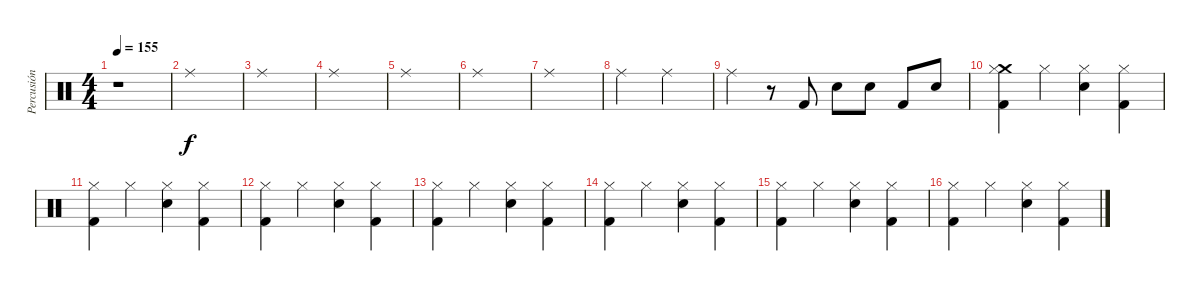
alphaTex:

\track ("Percusión" "Percusión") {instrument percussion}
\staff {score}
\articulation defaults
\ts (4 4)
\tempo 155
\clef neutral
\ks c
r.1{dy f} |
"Ride (middle)".1 |
"Ride (middle)".1 |
"Ride (middle)".1 |
"Ride (middle)".1 |
"Ride (middle)".1 |
"Ride (middle)".1 |
"Ride (middle)".2 "Ride (middle)".2 |
"Ride (middle)".4 r.8 "Kick (hit) 2".8 "Electric Snare (hit)".8 "Electric Snare (hit)".8 "Kick (hit) 2".8 "Electric Snare (hit)".8 |
("Crash medium (hit)" "Hi-Hat (closed)" "Kick (hit) 2").4 "Hi-Hat (closed)".4 ("Hi-Hat (closed)" "Electric Snare (hit)").4 ("Hi-Hat (closed)" "Kick (hit) 2").4 |
("Hi-Hat (closed)" "Kick (hit) 2").4 "Hi-Hat (closed)".4 ("Hi-Hat (closed)" "Electric Snare (hit)").4 ("Hi-Hat (closed)" "Kick (hit) 2").4 |
("Hi-Hat (closed)" "Kick (hit) 2").4 "Hi-Hat (closed)".4 ("Hi-Hat (closed)" "Electric Snare (hit)").4 ("Hi-Hat (closed)" "Kick (hit) 2").4 |
("Hi-Hat (closed)" "Kick (hit) 2").4 "Hi-Hat (closed)".4 ("Hi-Hat (closed)" "Electric Snare (hit)").4 ("Hi-Hat (closed)" "Kick (hit) 2").4 |
("Hi-Hat (closed)" "Kick (hit) 2").4 "Hi-Hat (closed)".4 ("Hi-Hat (closed)" "Electric Snare (hit)").4 ("Hi-Hat (closed)" "Kick (hit) 2").4 |
("Hi-Hat (closed)" "Kick (hit) 2").4 "Hi-Hat (closed)".4 ("Hi-Hat (closed)" "Electric Snare (hit)").4 ("Hi-Hat (closed)" "Kick (hit) 2").4 |
("Hi-Hat (closed)" "Kick (hit) 2").4 "Hi-Hat (closed)".4 ("Hi-Hat (closed)" "Electric Snare (hit)").4 ("Hi-Hat (closed)" "Kick (hit) 2").4
